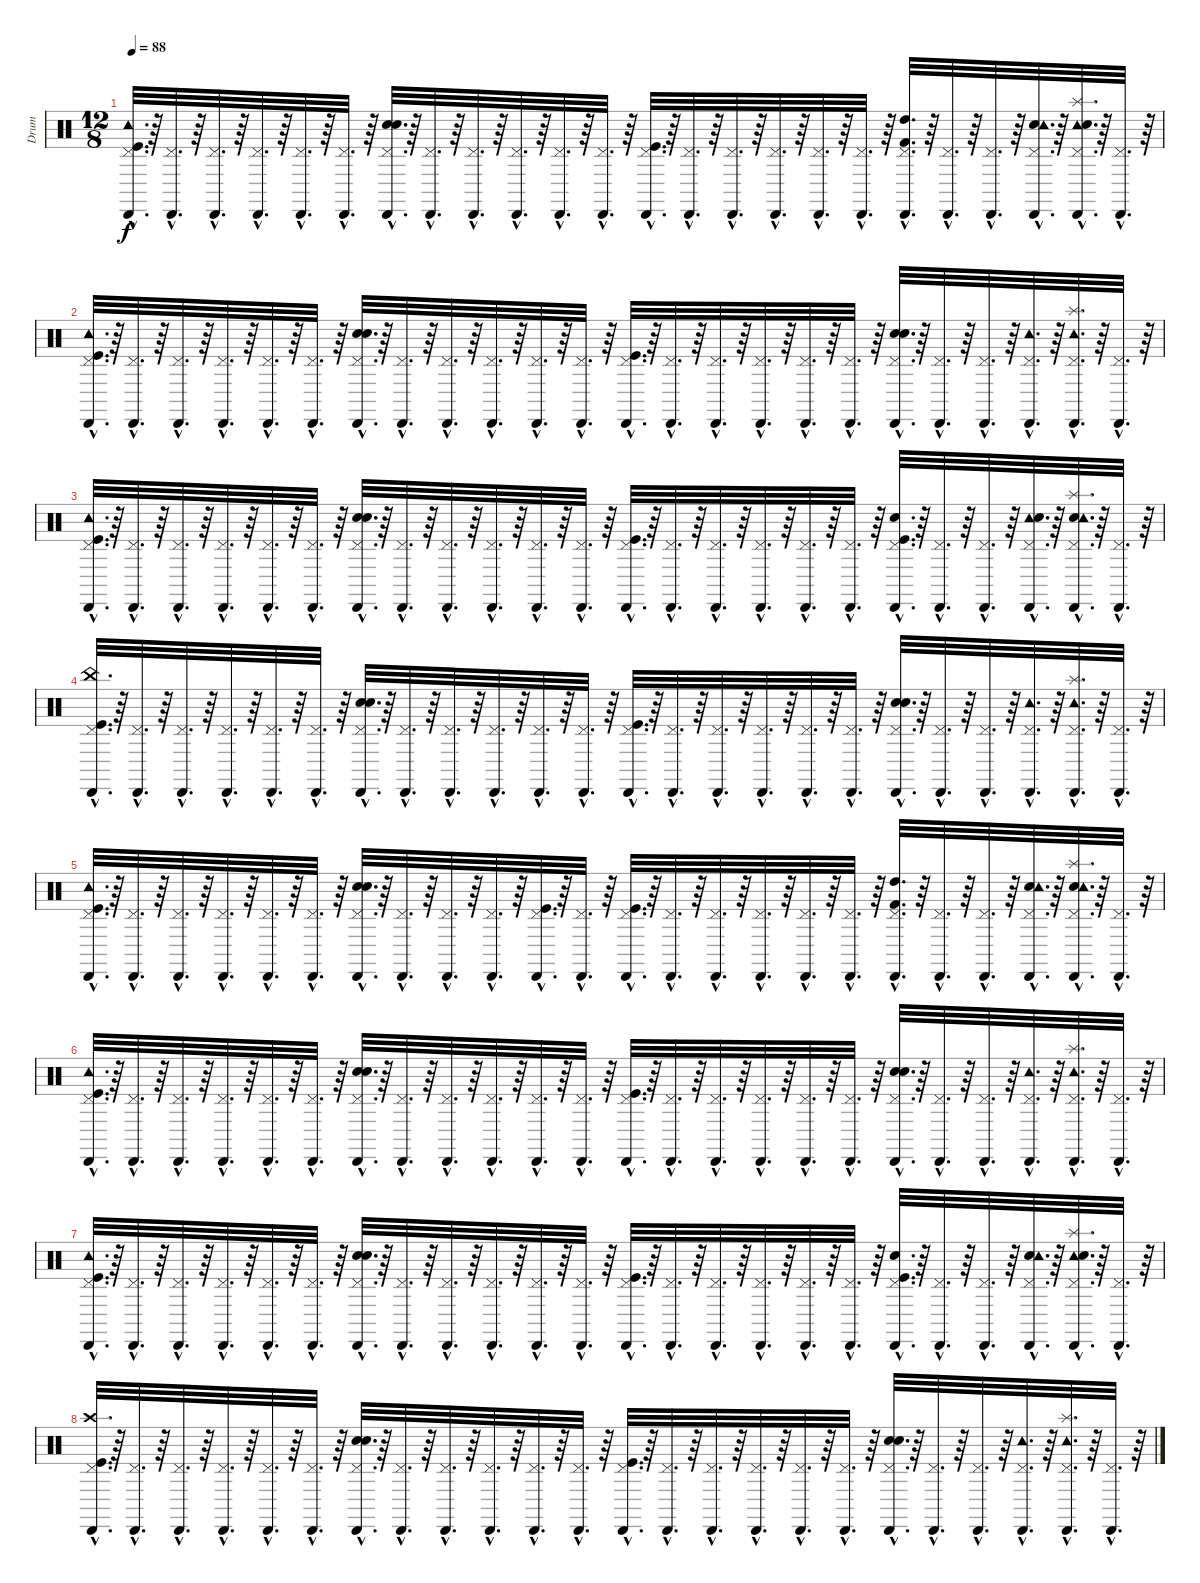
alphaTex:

\track ("Drum" "Drum") {instrument percussion}
\staff {score}
\articulation defaults
\ts (12 8)
\tempo 88
\clef neutral
\ks c
("Kick (hit)"{hac} "Pedal Hi-Hat (hit)"{hac} "Tambourine (hit)"{hac} "Cabasa (hit)"{hac}).32{d dy f} r.64 ("Cabasa (hit)"{hac} "Pedal Hi-Hat (hit)"{hac}).32{d} r.64 ("Pedal Hi-Hat (hit)"{hac} "Cabasa (hit)"{hac}).32{d} r.64 ("Pedal Hi-Hat (hit)"{hac} "Cabasa (hit)"{hac}).32{d} r.64 ("Pedal Hi-Hat (hit)"{hac} "Cabasa (hit)"{hac}).32{d} r.64 ("Pedal Hi-Hat (hit)"{hac} "Cabasa (hit)"{hac}).32{d} r.64 ("Snare (hit) 2"{hac} "Cabasa (hit)"{hac} "Pedal Hi-Hat (hit)"{hac} "Electric Snare (hit)"{hac}).32{d} r.64 ("Cabasa (hit)"{hac} "Pedal Hi-Hat (hit)"{hac}).32{d} r.64 ("Pedal Hi-Hat (hit)"{hac} "Cabasa (hit)"{hac}).32{d} r.64 ("Pedal Hi-Hat (hit)"{hac} "Cabasa (hit)"{hac}).32{d} r.64 ("Pedal Hi-Hat (hit)"{hac} "Cabasa (hit)"{hac}).32{d} r.64 ("Cabasa (hit)"{hac} "Pedal Hi-Hat (hit)"{hac}).32{d} r.64 ("Kick (hit)"{hac} "Cabasa (hit)"{hac} "Pedal Hi-Hat (hit)"{hac}).32{d} r.64 ("Cabasa (hit)"{hac} "Pedal Hi-Hat (hit)"{hac}).32{d} r.64 ("Cabasa (hit)"{hac} "Pedal Hi-Hat (hit)"{hac}).32{d} r.64 ("Cabasa (hit)"{hac} "Pedal Hi-Hat (hit)"{hac}).32{d} r.64 ("Pedal Hi-Hat (hit)"{hac} "Cabasa (hit)"{hac}).32{d} r.64 ("Cabasa (hit)"{hac} "Pedal Hi-Hat (hit)"{hac}).32{d} r.64 ("Pedal Hi-Hat (hit)"{hac} "Cabasa (hit)"{hac} "Kick (hit) 2"{hac} "High Tom (hit)"{hac}).32{d} r.64 ("Pedal Hi-Hat (hit)"{hac} "Cabasa (hit)"{hac}).32{d} r.64 ("Cabasa (hit)"{hac} "Pedal Hi-Hat (hit)"{hac}).32{d} r.64 ("Cabasa (hit)"{hac} "Pedal Hi-Hat (hit)"{hac} "Snare (hit) 2"{hac} "Tambourine (hit)"{hac}).32{d} r.64 ("Pedal Hi-Hat (hit)"{hac} "Cabasa (hit)"{hac} "Tambourine (hit)"{hac} "Snare (hit) 2"{hac} "Splash (hit)"{hac}).32{d} r.64 ("Cabasa (hit)"{hac} "Pedal Hi-Hat (hit)"{hac}).32{d} r.64 |
("Kick (hit)"{hac} "Pedal Hi-Hat (hit)"{hac} "Cabasa (hit)"{hac} "Tambourine (hit)"{hac}).32{d} r.64 ("Pedal Hi-Hat (hit)"{hac} "Cabasa (hit)"{hac}).32{d} r.64 ("Pedal Hi-Hat (hit)"{hac} "Cabasa (hit)"{hac}).32{d} r.64 ("Pedal Hi-Hat (hit)"{hac} "Cabasa (hit)"{hac}).32{d} r.64 ("Pedal Hi-Hat (hit)"{hac} "Cabasa (hit)"{hac}).32{d} r.64 ("Cabasa (hit)"{hac} "Pedal Hi-Hat (hit)"{hac}).32{d} r.64 ("Cabasa (hit)"{hac} "Electric Snare (hit)"{hac} "Pedal Hi-Hat (hit)"{hac} "Snare (hit) 2"{hac}).32{d} r.64 ("Pedal Hi-Hat (hit)"{hac} "Cabasa (hit)"{hac}).32{d} r.64 ("Pedal Hi-Hat (hit)"{hac} "Cabasa (hit)"{hac}).32{d} r.64 ("Cabasa (hit)"{hac} "Pedal Hi-Hat (hit)"{hac}).32{d} r.64 ("Cabasa (hit)"{hac} "Pedal Hi-Hat (hit)"{hac}).32{d} r.64 ("Pedal Hi-Hat (hit)"{hac} "Cabasa (hit)"{hac}).32{d} r.64 ("Kick (hit)"{hac} "Pedal Hi-Hat (hit)"{hac} "Cabasa (hit)"{hac}).32{d} r.64 ("Pedal Hi-Hat (hit)"{hac} "Cabasa (hit)"{hac}).32{d} r.64 ("Pedal Hi-Hat (hit)"{hac} "Cabasa (hit)"{hac}).32{d} r.64 ("Pedal Hi-Hat (hit)"{hac} "Cabasa (hit)"{hac}).32{d} r.64 ("Cabasa (hit)"{hac} "Pedal Hi-Hat (hit)"{hac}).32{d} r.64 ("Pedal Hi-Hat (hit)"{hac} "Cabasa (hit)"{hac}).32{d} r.64 ("Cabasa (hit)"{hac} "Electric Snare (hit)"{hac} "Snare (hit) 2"{hac} "Pedal Hi-Hat (hit)"{hac}).32{d} r.64 ("Cabasa (hit)"{hac} "Pedal Hi-Hat (hit)"{hac}).32{d} r.64 ("Pedal Hi-Hat (hit)"{hac} "Cabasa (hit)"{hac}).32{d} r.64 ("Tambourine (hit)"{hac} "Pedal Hi-Hat (hit)"{hac} "Cabasa (hit)"{hac}).32{d} r.64 ("Splash (hit)"{hac} "Cabasa (hit)"{hac} "Pedal Hi-Hat (hit)"{hac} "Tambourine (hit)"{hac}).32{d} r.64 ("Pedal Hi-Hat (hit)"{hac} "Cabasa (hit)"{hac}).32{d} r.64 |
("Tambourine (hit)"{hac} "Kick (hit)"{hac} "Pedal Hi-Hat (hit)"{hac} "Cabasa (hit)"{hac}).32{d} r.64 ("Cabasa (hit)"{hac} "Pedal Hi-Hat (hit)"{hac}).32{d} r.64 ("Pedal Hi-Hat (hit)"{hac} "Cabasa (hit)"{hac}).32{d} r.64 ("Pedal Hi-Hat (hit)"{hac} "Cabasa (hit)"{hac}).32{d} r.64 ("Cabasa (hit)"{hac} "Pedal Hi-Hat (hit)"{hac}).32{d} r.64 ("Pedal Hi-Hat (hit)"{hac} "Cabasa (hit)"{hac}).32{d} r.64 ("Pedal Hi-Hat (hit)"{hac} "Snare (hit) 2"{hac} "Electric Snare (hit)"{hac} "Cabasa (hit)"{hac}).32{d} r.64 ("Pedal Hi-Hat (hit)"{hac} "Cabasa (hit)"{hac}).32{d} r.64 ("Pedal Hi-Hat (hit)"{hac} "Cabasa (hit)"{hac}).32{d} r.64 ("Pedal Hi-Hat (hit)"{hac} "Cabasa (hit)"{hac}).32{d} r.64 ("Pedal Hi-Hat (hit)"{hac} "Cabasa (hit)"{hac}).32{d} r.64 ("Cabasa (hit)"{hac} "Pedal Hi-Hat (hit)"{hac}).32{d} r.64 ("Cabasa (hit)"{hac} "Pedal Hi-Hat (hit)"{hac} "Kick (hit)"{hac}).32{d} r.64 ("Pedal Hi-Hat (hit)"{hac} "Cabasa (hit)"{hac}).32{d} r.64 ("Cabasa (hit)"{hac} "Pedal Hi-Hat (hit)"{hac}).32{d} r.64 ("Pedal Hi-Hat (hit)"{hac} "Cabasa (hit)"{hac}).32{d} r.64 ("Pedal Hi-Hat (hit)"{hac} "Cabasa (hit)"{hac}).32{d} r.64 ("Cabasa (hit)"{hac} "Pedal Hi-Hat (hit)"{hac}).32{d} r.64 ("Cabasa (hit)"{hac} "Kick (hit)"{hac} "Electric Snare (hit)"{hac} "Pedal Hi-Hat (hit)"{hac}).32{d} r.64 ("Pedal Hi-Hat (hit)"{hac} "Cabasa (hit)"{hac}).32{d} r.64 ("Cabasa (hit)"{hac} "Pedal Hi-Hat (hit)"{hac}).32{d} r.64 ("Cabasa (hit)"{hac} "Tambourine (hit)"{hac} "Pedal Hi-Hat (hit)"{hac} "Snare (hit) 2"{hac}).32{d} r.64 ("Snare (hit) 2"{hac} "Pedal Hi-Hat (hit)"{hac} "Cabasa (hit)"{hac} "Splash (hit)"{hac} "Tambourine (hit)"{hac}).32{d} r.64 ("Cabasa (hit)"{hac} "Pedal Hi-Hat (hit)"{hac}).32{d} r.64 |
("China (hit)"{hac} "Cabasa (hit)"{hac} "Kick (hit)"{hac} "Pedal Hi-Hat (hit)"{hac}).32{d} r.64 ("Pedal Hi-Hat (hit)"{hac} "Cabasa (hit)"{hac}).32{d} r.64 ("Pedal Hi-Hat (hit)"{hac} "Cabasa (hit)"{hac}).32{d} r.64 ("Pedal Hi-Hat (hit)"{hac} "Cabasa (hit)"{hac}).32{d} r.64 ("Pedal Hi-Hat (hit)"{hac} "Cabasa (hit)"{hac}).32{d} r.64 ("Cabasa (hit)"{hac} "Pedal Hi-Hat (hit)"{hac}).32{d} r.64 ("Pedal Hi-Hat (hit)"{hac} "Cabasa (hit)"{hac} "Snare (hit) 2"{hac} "Electric Snare (hit)"{hac}).32{d} r.64 ("Pedal Hi-Hat (hit)"{hac} "Cabasa (hit)"{hac}).32{d} r.64 ("Pedal Hi-Hat (hit)"{hac} "Cabasa (hit)"{hac}).32{d} r.64 ("Cabasa (hit)"{hac} "Pedal Hi-Hat (hit)"{hac}).32{d} r.64 ("Cabasa (hit)"{hac} "Pedal Hi-Hat (hit)"{hac}).32{d} r.64 ("Pedal Hi-Hat (hit)"{hac} "Cabasa (hit)"{hac}).32{d} r.64 ("Pedal Hi-Hat (hit)"{hac} "Kick (hit)"{hac} "Cabasa (hit)"{hac}).32{d} r.64 ("Pedal Hi-Hat (hit)"{hac} "Cabasa (hit)"{hac}).32{d} r.64 ("Pedal Hi-Hat (hit)"{hac} "Cabasa (hit)"{hac}).32{d} r.64 ("Cabasa (hit)"{hac} "Pedal Hi-Hat (hit)"{hac}).32{d} r.64 ("Cabasa (hit)"{hac} "Pedal Hi-Hat (hit)"{hac}).32{d} r.64 ("Cabasa (hit)"{hac} "Pedal Hi-Hat (hit)"{hac}).32{d} r.64 ("Cabasa (hit)"{hac} "Electric Snare (hit)"{hac} "Pedal Hi-Hat (hit)"{hac} "Snare (hit) 2"{hac}).32{d} r.64 ("Cabasa (hit)"{hac} "Pedal Hi-Hat (hit)"{hac}).32{d} r.64 ("Cabasa (hit)"{hac} "Pedal Hi-Hat (hit)"{hac}).32{d} r.64 ("Cabasa (hit)"{hac} "Pedal Hi-Hat (hit)"{hac} "Tambourine (hit)"{hac}).32{d} r.64 ("Tambourine (hit)"{hac} "Splash (hit)"{hac} "Cabasa (hit)"{hac} "Pedal Hi-Hat (hit)"{hac}).32{d} r.64 ("Cabasa (hit)"{hac} "Pedal Hi-Hat (hit)"{hac}).32{d} r.64 |
("Tambourine (hit)"{hac} "Pedal Hi-Hat (hit)"{hac} "Kick (hit)"{hac} "Cabasa (hit)"{hac}).32{d} r.64 ("Pedal Hi-Hat (hit)"{hac} "Cabasa (hit)"{hac}).32{d} r.64 ("Cabasa (hit)"{hac} "Pedal Hi-Hat (hit)"{hac}).32{d} r.64 ("Cabasa (hit)"{hac} "Pedal Hi-Hat (hit)"{hac}).32{d} r.64 ("Pedal Hi-Hat (hit)"{hac} "Cabasa (hit)"{hac}).32{d} r.64 ("Cabasa (hit)"{hac} "Pedal Hi-Hat (hit)"{hac}).32{d} r.64 ("Electric Snare (hit)"{hac} "Cabasa (hit)"{hac} "Snare (hit) 2"{hac} "Pedal Hi-Hat (hit)"{hac}).32{d} r.64 ("Pedal Hi-Hat (hit)"{hac} "Cabasa (hit)"{hac}).32{d} r.64 ("Pedal Hi-Hat (hit)"{hac} "Cabasa (hit)"{hac}).32{d} r.64 ("Cabasa (hit)"{hac} "Pedal Hi-Hat (hit)"{hac}).32{d} r.64 ("Kick (hit)"{hac} "Pedal Hi-Hat (hit)"{hac} "Cabasa (hit)"{hac}).32{d} r.64 ("Pedal Hi-Hat (hit)"{hac} "Cabasa (hit)"{hac}).32{d} r.64 ("Pedal Hi-Hat (hit)"{hac} "Kick (hit)"{hac} "Cabasa (hit)"{hac}).32{d} r.64 ("Pedal Hi-Hat (hit)"{hac} "Cabasa (hit)"{hac}).32{d} r.64 ("Cabasa (hit)"{hac} "Pedal Hi-Hat (hit)"{hac}).32{d} r.64 ("Cabasa (hit)"{hac} "Pedal Hi-Hat (hit)"{hac}).32{d} r.64 ("Pedal Hi-Hat (hit)"{hac} "Cabasa (hit)"{hac}).32{d} r.64 ("Cabasa (hit)"{hac} "Pedal Hi-Hat (hit)"{hac}).32{d} r.64 ("Cabasa (hit)"{hac} "Kick (hit) 2"{hac} "Pedal Hi-Hat (hit)"{hac} "High Tom (hit)"{hac}).32{d} r.64 ("Cabasa (hit)"{hac} "Pedal Hi-Hat (hit)"{hac}).32{d} r.64 ("Cabasa (hit)"{hac} "Pedal Hi-Hat (hit)"{hac}).32{d} r.64 ("Cabasa (hit)"{hac} "Pedal Hi-Hat (hit)"{hac} "Snare (hit) 2"{hac} "Tambourine (hit)"{hac}).32{d} r.64 ("Cabasa (hit)"{hac} "Snare (hit) 2"{hac} "Pedal Hi-Hat (hit)"{hac} "Tambourine (hit)"{hac} "Splash (hit)"{hac}).32{d} r.64 ("Cabasa (hit)"{hac} "Pedal Hi-Hat (hit)"{hac}).32{d} r.64 |
("Tambourine (hit)"{hac} "Cabasa (hit)"{hac} "Pedal Hi-Hat (hit)"{hac} "Kick (hit)"{hac}).32{d} r.64 ("Cabasa (hit)"{hac} "Pedal Hi-Hat (hit)"{hac}).32{d} r.64 ("Cabasa (hit)"{hac} "Pedal Hi-Hat (hit)"{hac}).32{d} r.64 ("Cabasa (hit)"{hac} "Pedal Hi-Hat (hit)"{hac}).32{d} r.64 ("Cabasa (hit)"{hac} "Pedal Hi-Hat (hit)"{hac}).32{d} r.64 ("Pedal Hi-Hat (hit)"{hac} "Cabasa (hit)"{hac}).32{d} r.64 ("Snare (hit) 2"{hac} "Pedal Hi-Hat (hit)"{hac} "Electric Snare (hit)"{hac} "Cabasa (hit)"{hac}).32{d} r.64 ("Cabasa (hit)"{hac} "Pedal Hi-Hat (hit)"{hac}).32{d} r.64 ("Cabasa (hit)"{hac} "Pedal Hi-Hat (hit)"{hac}).32{d} r.64 ("Pedal Hi-Hat (hit)"{hac} "Cabasa (hit)"{hac}).32{d} r.64 ("Pedal Hi-Hat (hit)"{hac} "Cabasa (hit)"{hac}).32{d} r.64 ("Cabasa (hit)"{hac} "Pedal Hi-Hat (hit)"{hac}).32{d} r.64 ("Cabasa (hit)"{hac} "Pedal Hi-Hat (hit)"{hac} "Kick (hit)"{hac}).32{d} r.64 ("Cabasa (hit)"{hac} "Pedal Hi-Hat (hit)"{hac}).32{d} r.64 ("Cabasa (hit)"{hac} "Pedal Hi-Hat (hit)"{hac}).32{d} r.64 ("Cabasa (hit)"{hac} "Pedal Hi-Hat (hit)"{hac}).32{d} r.64 ("Pedal Hi-Hat (hit)"{hac} "Cabasa (hit)"{hac}).32{d} r.64 ("Cabasa (hit)"{hac} "Pedal Hi-Hat (hit)"{hac}).32{d} r.64 ("Pedal Hi-Hat (hit)"{hac} "Snare (hit) 2"{hac} "Electric Snare (hit)"{hac} "Cabasa (hit)"{hac}).32{d} r.64 ("Pedal Hi-Hat (hit)"{hac} "Cabasa (hit)"{hac}).32{d} r.64 ("Cabasa (hit)"{hac} "Pedal Hi-Hat (hit)"{hac}).32{d} r.64 ("Cabasa (hit)"{hac} "Pedal Hi-Hat (hit)"{hac} "Tambourine (hit)"{hac}).32{d} r.64 ("Tambourine (hit)"{hac} "Pedal Hi-Hat (hit)"{hac} "Cabasa (hit)"{hac} "Splash (hit)"{hac}).32{d} r.64 ("Cabasa (hit)"{hac} "Pedal Hi-Hat (hit)"{hac}).32{d} r.64 |
("Cabasa (hit)"{hac} "Pedal Hi-Hat (hit)"{hac} "Kick (hit)"{hac} "Tambourine (hit)"{hac}).32{d} r.64 ("Pedal Hi-Hat (hit)"{hac} "Cabasa (hit)"{hac}).32{d} r.64 ("Cabasa (hit)"{hac} "Pedal Hi-Hat (hit)"{hac}).32{d} r.64 ("Cabasa (hit)"{hac} "Pedal Hi-Hat (hit)"{hac}).32{d} r.64 ("Pedal Hi-Hat (hit)"{hac} "Cabasa (hit)"{hac}).32{d} r.64 ("Cabasa (hit)"{hac} "Pedal Hi-Hat (hit)"{hac}).32{d} r.64 ("Cabasa (hit)"{hac} "Electric Snare (hit)"{hac} "Snare (hit) 2"{hac} "Pedal Hi-Hat (hit)"{hac}).32{d} r.64 ("Cabasa (hit)"{hac} "Pedal Hi-Hat (hit)"{hac}).32{d} r.64 ("Cabasa (hit)"{hac} "Pedal Hi-Hat (hit)"{hac}).32{d} r.64 ("Cabasa (hit)"{hac} "Pedal Hi-Hat (hit)"{hac}).32{d} r.64 ("Cabasa (hit)"{hac} "Pedal Hi-Hat (hit)"{hac}).32{d} r.64 ("Pedal Hi-Hat (hit)"{hac} "Cabasa (hit)"{hac}).32{d} r.64 ("Kick (hit)"{hac} "Pedal Hi-Hat (hit)"{hac} "Cabasa (hit)"{hac}).32{d} r.64 ("Cabasa (hit)"{hac} "Pedal Hi-Hat (hit)"{hac}).32{d} r.64 ("Pedal Hi-Hat (hit)"{hac} "Cabasa (hit)"{hac}).32{d} r.64 ("Cabasa (hit)"{hac} "Pedal Hi-Hat (hit)"{hac}).32{d} r.64 ("Cabasa (hit)"{hac} "Pedal Hi-Hat (hit)"{hac}).32{d} r.64 ("Pedal Hi-Hat (hit)"{hac} "Cabasa (hit)"{hac}).32{d} r.64 ("Pedal Hi-Hat (hit)"{hac} "Electric Snare (hit)"{hac} "Kick (hit)"{hac} "Cabasa (hit)"{hac}).32{d} r.64 ("Cabasa (hit)"{hac} "Pedal Hi-Hat (hit)"{hac}).32{d} r.64 ("Pedal Hi-Hat (hit)"{hac} "Cabasa (hit)"{hac}).32{d} r.64 ("Snare (hit) 2"{hac} "Pedal Hi-Hat (hit)"{hac} "Tambourine (hit)"{hac} "Cabasa (hit)"{hac}).32{d} r.64 ("Tambourine (hit)"{hac} "Splash (hit)"{hac} "Cabasa (hit)"{hac} "Pedal Hi-Hat (hit)"{hac} "Snare (hit) 2"{hac}).32{d} r.64 ("Pedal Hi-Hat (hit)"{hac} "Cabasa (hit)"{hac}).32{d} r.64 |
("Crash high (hit)"{hac} "Pedal Hi-Hat (hit)"{hac} "Kick (hit)"{hac} "Cabasa (hit)"{hac}).32{d} r.64 ("Cabasa (hit)"{hac} "Pedal Hi-Hat (hit)"{hac}).32{d} r.64 ("Cabasa (hit)"{hac} "Pedal Hi-Hat (hit)"{hac}).32{d} r.64 ("Cabasa (hit)"{hac} "Pedal Hi-Hat (hit)"{hac}).32{d} r.64 ("Cabasa (hit)"{hac} "Pedal Hi-Hat (hit)"{hac}).32{d} r.64 ("Pedal Hi-Hat (hit)"{hac} "Cabasa (hit)"{hac}).32{d} r.64 ("Electric Snare (hit)"{hac} "Snare (hit) 2"{hac} "Cabasa (hit)"{hac} "Pedal Hi-Hat (hit)"{hac}).32{d} r.64 ("Cabasa (hit)"{hac} "Pedal Hi-Hat (hit)"{hac}).32{d} r.64 ("Cabasa (hit)"{hac} "Pedal Hi-Hat (hit)"{hac}).32{d} r.64 ("Pedal Hi-Hat (hit)"{hac} "Cabasa (hit)"{hac}).32{d} r.64 ("Pedal Hi-Hat (hit)"{hac} "Cabasa (hit)"{hac}).32{d} r.64 ("Cabasa (hit)"{hac} "Pedal Hi-Hat (hit)"{hac}).32{d} r.64 ("Cabasa (hit)"{hac} "Kick (hit)"{hac} "Pedal Hi-Hat (hit)"{hac}).32{d} r.64 ("Pedal Hi-Hat (hit)"{hac} "Cabasa (hit)"{hac}).32{d} r.64 ("Pedal Hi-Hat (hit)"{hac} "Cabasa (hit)"{hac}).32{d} r.64 ("Cabasa (hit)"{hac} "Pedal Hi-Hat (hit)"{hac}).32{d} r.64 ("Pedal Hi-Hat (hit)"{hac} "Cabasa (hit)"{hac}).32{d} r.64 ("Pedal Hi-Hat (hit)"{hac} "Cabasa (hit)"{hac}).32{d} r.64 ("Snare (hit) 2"{hac} "Pedal Hi-Hat (hit)"{hac} "Electric Snare (hit)"{hac} "Cabasa (hit)"{hac}).32{d} r.64 ("Pedal Hi-Hat (hit)"{hac} "Cabasa (hit)"{hac}).32{d} r.64 ("Pedal Hi-Hat (hit)"{hac} "Cabasa (hit)"{hac}).32{d} r.64 ("Pedal Hi-Hat (hit)"{hac} "Cabasa (hit)"{hac} "Tambourine (hit)"{hac}).32{d} r.64 ("Pedal Hi-Hat (hit)"{hac} "Cabasa (hit)"{hac} "Splash (hit)"{hac} "Tambourine (hit)"{hac}).32{d} r.64 ("Pedal Hi-Hat (hit)"{hac} "Cabasa (hit)"{hac}).32{d} r.64
